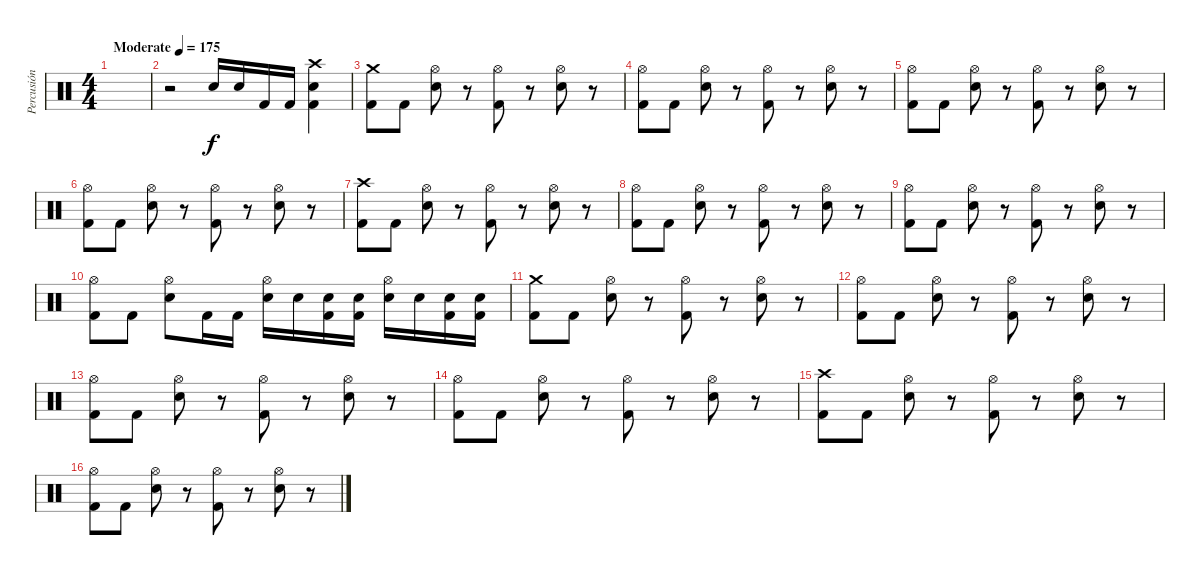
\track ("Percusión" "Percusión") {instrument percussion}
\staff {score}
\articulation defaults
\ts (4 4)
\tempo (175 "Moderate")
\clef neutral
\ks c
|
r.2 "Electric Snare (hit)".16 "Electric Snare (hit)".16 "Kick (hit) 2".16 "Kick (hit) 2".16 ("Crash high (hit)" "Electric Snare (hit)" "Kick (hit) 2").4 |
("Crash medium (hit)" "Kick (hit) 2").8 "Kick (hit) 2".8 ("Hi-Hat (open)" "Electric Snare (hit)").8 r.8 ("Hi-Hat (open)" "Kick (hit) 2").8 r.8 ("Hi-Hat (open)" "Electric Snare (hit)").8 r.8 |
("Hi-Hat (open)" "Kick (hit) 2").8 "Kick (hit) 2".8 ("Hi-Hat (open)" "Electric Snare (hit)").8 r.8 ("Hi-Hat (open)" "Kick (hit) 2").8 r.8 ("Hi-Hat (open)" "Electric Snare (hit)").8 r.8 |
("Hi-Hat (open)" "Kick (hit) 2").8 "Kick (hit) 2".8 ("Hi-Hat (open)" "Electric Snare (hit)").8 r.8 ("Hi-Hat (open)" "Kick (hit) 2").8 r.8 ("Hi-Hat (open)" "Electric Snare (hit)").8 r.8 |
("Hi-Hat (open)" "Kick (hit) 2").8 "Kick (hit) 2".8 ("Hi-Hat (open)" "Electric Snare (hit)").8 r.8 ("Hi-Hat (open)" "Kick (hit) 2").8 r.8 ("Hi-Hat (open)" "Electric Snare (hit)").8 r.8 |
("Crash high (hit)" "Kick (hit) 2").8 "Kick (hit) 2".8 ("Hi-Hat (open)" "Electric Snare (hit)").8 r.8 ("Hi-Hat (open)" "Kick (hit) 2").8 r.8 ("Hi-Hat (open)" "Electric Snare (hit)").8 r.8 |
("Hi-Hat (open)" "Kick (hit) 2").8 "Kick (hit) 2".8 ("Hi-Hat (open)" "Electric Snare (hit)").8 r.8 ("Hi-Hat (open)" "Kick (hit) 2").8 r.8 ("Hi-Hat (open)" "Electric Snare (hit)").8 r.8 |
("Hi-Hat (open)" "Kick (hit) 2").8 "Kick (hit) 2".8 ("Hi-Hat (open)" "Electric Snare (hit)").8 r.8 ("Hi-Hat (open)" "Kick (hit) 2").8 r.8 ("Hi-Hat (open)" "Electric Snare (hit)").8 r.8 |
("Hi-Hat (open)" "Kick (hit) 2").8 "Kick (hit) 2".8 ("Hi-Hat (open)" "Electric Snare (hit)").8 "Kick (hit) 2".16 "Kick (hit) 2".16 ("Hi-Hat (open)" "Electric Snare (hit)").16 "Electric Snare (hit)".16 ("Electric Snare (hit)" "Kick (hit) 2").16 ("Electric Snare (hit)" "Kick (hit) 2").16 ("Hi-Hat (open)" "Electric Snare (hit)").16 "Electric Snare (hit)".16 ("Electric Snare (hit)" "Kick (hit) 2").16 ("Electric Snare (hit)" "Kick (hit) 2").16 |
("Crash medium (hit)" "Kick (hit) 2").8 "Kick (hit) 2".8 ("Hi-Hat (open)" "Electric Snare (hit)").8 r.8 ("Hi-Hat (open)" "Kick (hit) 2").8 r.8 ("Hi-Hat (open)" "Electric Snare (hit)").8 r.8 |
("Hi-Hat (open)" "Kick (hit) 2").8 "Kick (hit) 2".8 ("Hi-Hat (open)" "Electric Snare (hit)").8 r.8 ("Hi-Hat (open)" "Kick (hit) 2").8 r.8 ("Hi-Hat (open)" "Electric Snare (hit)").8 r.8 |
("Hi-Hat (open)" "Kick (hit) 2").8 "Kick (hit) 2".8 ("Hi-Hat (open)" "Electric Snare (hit)").8 r.8 ("Hi-Hat (open)" "Kick (hit) 2").8 r.8 ("Hi-Hat (open)" "Electric Snare (hit)").8 r.8 |
("Hi-Hat (open)" "Kick (hit) 2").8 "Kick (hit) 2".8 ("Hi-Hat (open)" "Electric Snare (hit)").8 r.8 ("Hi-Hat (open)" "Kick (hit) 2").8 r.8 ("Hi-Hat (open)" "Electric Snare (hit)").8 r.8 |
("Crash high (hit)" "Kick (hit) 2").8 "Kick (hit) 2".8 ("Hi-Hat (open)" "Electric Snare (hit)").8 r.8 ("Hi-Hat (open)" "Kick (hit) 2").8 r.8 ("Hi-Hat (open)" "Electric Snare (hit)").8 r.8 |
("Hi-Hat (open)" "Kick (hit) 2").8 "Kick (hit) 2".8 ("Hi-Hat (open)" "Electric Snare (hit)").8 r.8 ("Hi-Hat (open)" "Kick (hit) 2").8 r.8 ("Hi-Hat (open)" "Electric Snare (hit)").8 r.8
